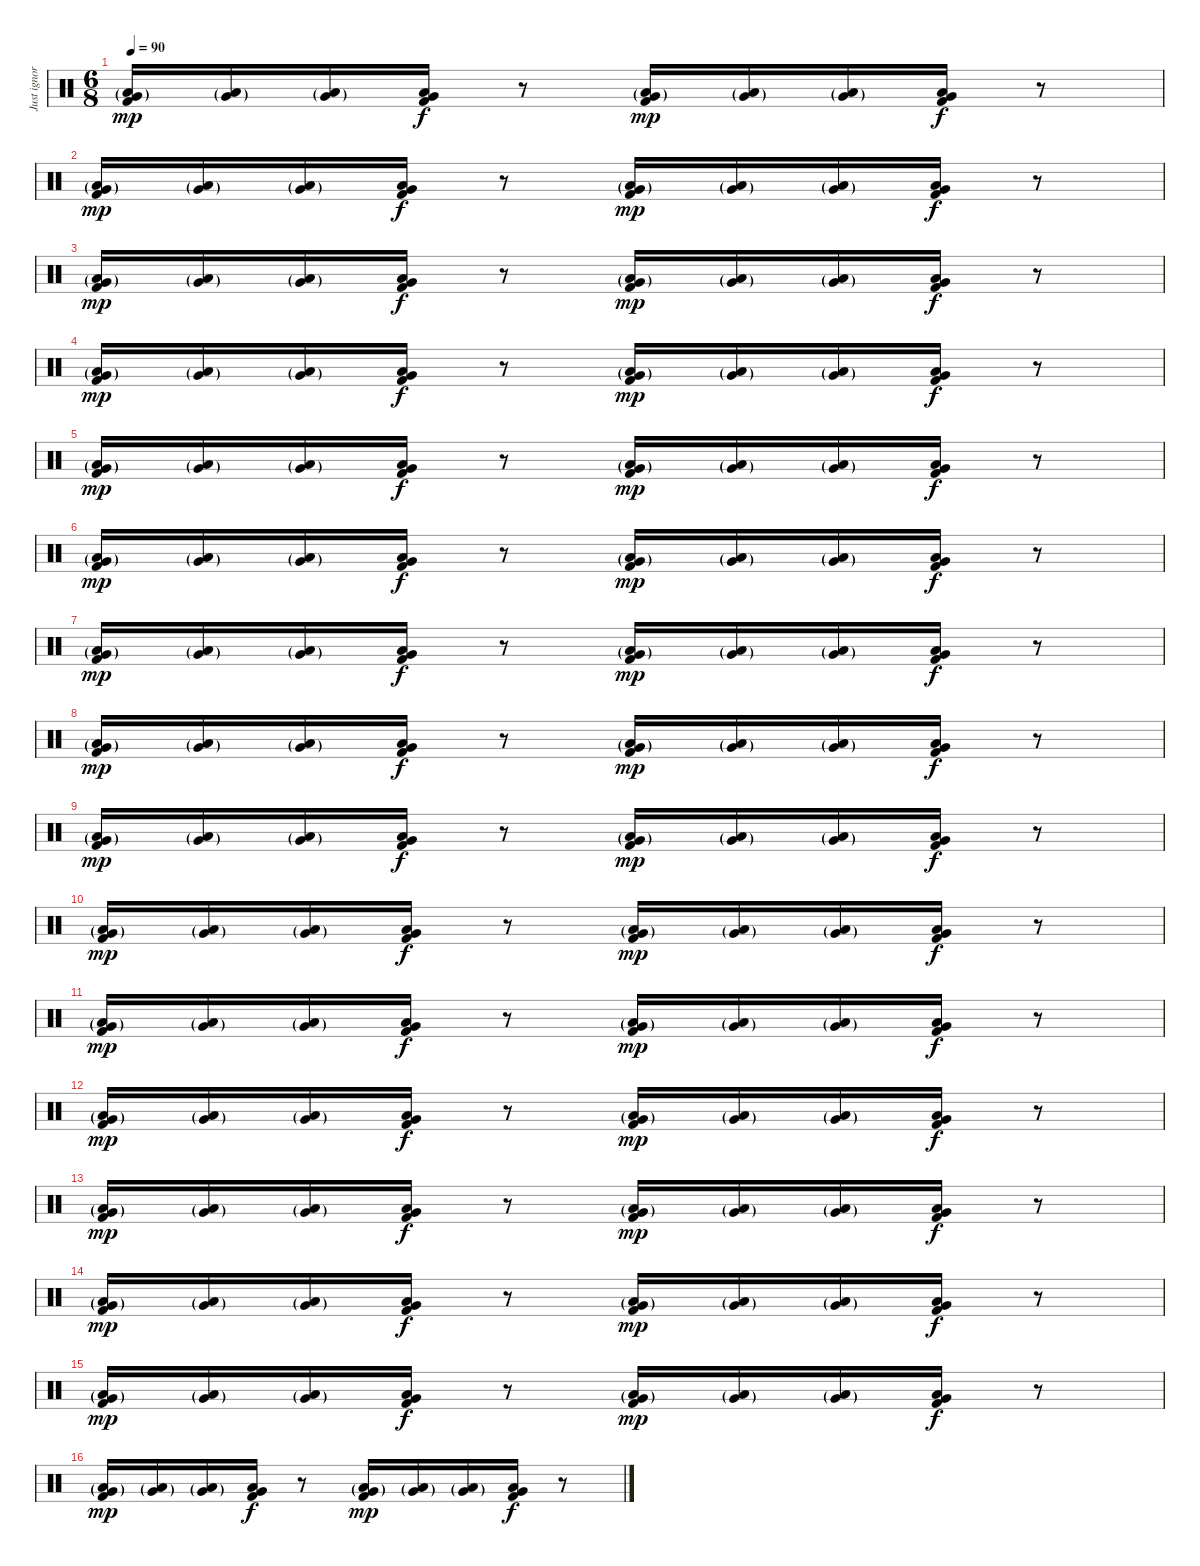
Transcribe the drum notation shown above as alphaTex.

\track ("Just ignore this track" "Just ignor") {instrument percussion}
\staff {score}
\articulation defaults
\ts (6 8)
\tempo 90
\clef neutral
\ks c
("Very Low Tom (hit)"{g} "Low Floor Tom (hit)"{g} "Kick (hit) 2").16{dy mp volume 7} ("Very Low Tom (hit)"{g} "Low Floor Tom (hit)"{g}).16{volume 10} ("Very Low Tom (hit)"{g} "Low Floor Tom (hit)"{g}).16 ("Very Low Tom (hit)" "Low Floor Tom (hit)" "Kick (hit) 2").16{dy f} r.8 ("Very Low Tom (hit)"{g} "Low Floor Tom (hit)"{g} "Kick (hit) 2").16{dy mp} ("Very Low Tom (hit)"{g} "Low Floor Tom (hit)"{g}).16 ("Very Low Tom (hit)"{g} "Low Floor Tom (hit)"{g}).16 ("Very Low Tom (hit)" "Low Floor Tom (hit)" "Kick (hit) 2").16{dy f} r.8 |
("Very Low Tom (hit)"{g} "Low Floor Tom (hit)"{g} "Kick (hit) 2").16{dy mp} ("Very Low Tom (hit)"{g} "Low Floor Tom (hit)"{g}).16 ("Very Low Tom (hit)"{g} "Low Floor Tom (hit)"{g}).16 ("Very Low Tom (hit)" "Low Floor Tom (hit)" "Kick (hit) 2").16{dy f} r.8 ("Very Low Tom (hit)"{g} "Low Floor Tom (hit)"{g} "Kick (hit) 2").16{dy mp} ("Very Low Tom (hit)"{g} "Low Floor Tom (hit)"{g}).16 ("Very Low Tom (hit)"{g} "Low Floor Tom (hit)"{g}).16 ("Very Low Tom (hit)" "Low Floor Tom (hit)" "Kick (hit) 2").16{dy f} r.8 |
("Very Low Tom (hit)"{g} "Low Floor Tom (hit)"{g} "Kick (hit) 2").16{dy mp} ("Very Low Tom (hit)"{g} "Low Floor Tom (hit)"{g}).16 ("Very Low Tom (hit)"{g} "Low Floor Tom (hit)"{g}).16 ("Very Low Tom (hit)" "Low Floor Tom (hit)" "Kick (hit) 2").16{dy f} r.8 ("Very Low Tom (hit)"{g} "Low Floor Tom (hit)"{g} "Kick (hit) 2").16{dy mp} ("Very Low Tom (hit)"{g} "Low Floor Tom (hit)"{g}).16 ("Very Low Tom (hit)"{g} "Low Floor Tom (hit)"{g}).16 ("Very Low Tom (hit)" "Low Floor Tom (hit)" "Kick (hit) 2").16{dy f} r.8 |
("Very Low Tom (hit)"{g} "Low Floor Tom (hit)"{g} "Kick (hit) 2").16{dy mp} ("Very Low Tom (hit)"{g} "Low Floor Tom (hit)"{g}).16 ("Very Low Tom (hit)"{g} "Low Floor Tom (hit)"{g}).16 ("Very Low Tom (hit)" "Low Floor Tom (hit)" "Kick (hit) 2").16{dy f} r.8 ("Very Low Tom (hit)"{g} "Low Floor Tom (hit)"{g} "Kick (hit) 2").16{dy mp} ("Very Low Tom (hit)"{g} "Low Floor Tom (hit)"{g}).16 ("Very Low Tom (hit)"{g} "Low Floor Tom (hit)"{g}).16 ("Very Low Tom (hit)" "Low Floor Tom (hit)" "Kick (hit) 2").16{dy f} r.8 |
("Very Low Tom (hit)"{g} "Low Floor Tom (hit)"{g} "Kick (hit) 2").16{dy mp volume 10} ("Very Low Tom (hit)"{g} "Low Floor Tom (hit)"{g}).16{volume 10} ("Very Low Tom (hit)"{g} "Low Floor Tom (hit)"{g}).16 ("Very Low Tom (hit)" "Low Floor Tom (hit)" "Kick (hit) 2").16{dy f} r.8 ("Very Low Tom (hit)"{g} "Low Floor Tom (hit)"{g} "Kick (hit) 2").16{dy mp} ("Very Low Tom (hit)"{g} "Low Floor Tom (hit)"{g}).16 ("Very Low Tom (hit)"{g} "Low Floor Tom (hit)"{g}).16 ("Very Low Tom (hit)" "Low Floor Tom (hit)" "Kick (hit) 2").16{dy f} r.8 |
("Very Low Tom (hit)"{g} "Low Floor Tom (hit)"{g} "Kick (hit) 2").16{dy mp} ("Very Low Tom (hit)"{g} "Low Floor Tom (hit)"{g}).16 ("Very Low Tom (hit)"{g} "Low Floor Tom (hit)"{g}).16 ("Very Low Tom (hit)" "Low Floor Tom (hit)" "Kick (hit) 2").16{dy f} r.8 ("Very Low Tom (hit)"{g} "Low Floor Tom (hit)"{g} "Kick (hit) 2").16{dy mp} ("Very Low Tom (hit)"{g} "Low Floor Tom (hit)"{g}).16 ("Very Low Tom (hit)"{g} "Low Floor Tom (hit)"{g}).16 ("Very Low Tom (hit)" "Low Floor Tom (hit)" "Kick (hit) 2").16{dy f} r.8 |
("Very Low Tom (hit)"{g} "Low Floor Tom (hit)"{g} "Kick (hit) 2").16{dy mp} ("Very Low Tom (hit)"{g} "Low Floor Tom (hit)"{g}).16 ("Very Low Tom (hit)"{g} "Low Floor Tom (hit)"{g}).16 ("Very Low Tom (hit)" "Low Floor Tom (hit)" "Kick (hit) 2").16{dy f} r.8 ("Very Low Tom (hit)"{g} "Low Floor Tom (hit)"{g} "Kick (hit) 2").16{dy mp} ("Very Low Tom (hit)"{g} "Low Floor Tom (hit)"{g}).16 ("Very Low Tom (hit)"{g} "Low Floor Tom (hit)"{g}).16 ("Very Low Tom (hit)" "Low Floor Tom (hit)" "Kick (hit) 2").16{dy f} r.8 |
("Very Low Tom (hit)"{g} "Low Floor Tom (hit)"{g} "Kick (hit) 2").16{dy mp} ("Very Low Tom (hit)"{g} "Low Floor Tom (hit)"{g}).16 ("Very Low Tom (hit)"{g} "Low Floor Tom (hit)"{g}).16 ("Very Low Tom (hit)" "Low Floor Tom (hit)" "Kick (hit) 2").16{dy f} r.8 ("Very Low Tom (hit)"{g} "Low Floor Tom (hit)"{g} "Kick (hit) 2").16{dy mp} ("Very Low Tom (hit)"{g} "Low Floor Tom (hit)"{g}).16 ("Very Low Tom (hit)"{g} "Low Floor Tom (hit)"{g}).16 ("Very Low Tom (hit)" "Low Floor Tom (hit)" "Kick (hit) 2").16{dy f} r.8 |
("Very Low Tom (hit)"{g} "Low Floor Tom (hit)"{g} "Kick (hit) 2").16{dy mp} ("Very Low Tom (hit)"{g} "Low Floor Tom (hit)"{g}).16 ("Very Low Tom (hit)"{g} "Low Floor Tom (hit)"{g}).16 ("Very Low Tom (hit)" "Low Floor Tom (hit)" "Kick (hit) 2").16{dy f} r.8 ("Very Low Tom (hit)"{g} "Low Floor Tom (hit)"{g} "Kick (hit) 2").16{dy mp} ("Very Low Tom (hit)"{g} "Low Floor Tom (hit)"{g}).16 ("Very Low Tom (hit)"{g} "Low Floor Tom (hit)"{g}).16 ("Very Low Tom (hit)" "Low Floor Tom (hit)" "Kick (hit) 2").16{dy f} r.8 |
("Very Low Tom (hit)"{g} "Low Floor Tom (hit)"{g} "Kick (hit) 2").16{dy mp} ("Very Low Tom (hit)"{g} "Low Floor Tom (hit)"{g}).16 ("Very Low Tom (hit)"{g} "Low Floor Tom (hit)"{g}).16 ("Very Low Tom (hit)" "Low Floor Tom (hit)" "Kick (hit) 2").16{dy f} r.8 ("Very Low Tom (hit)"{g} "Low Floor Tom (hit)"{g} "Kick (hit) 2").16{dy mp} ("Very Low Tom (hit)"{g} "Low Floor Tom (hit)"{g}).16 ("Very Low Tom (hit)"{g} "Low Floor Tom (hit)"{g}).16 ("Very Low Tom (hit)" "Low Floor Tom (hit)" "Kick (hit) 2").16{dy f} r.8 |
("Very Low Tom (hit)"{g} "Low Floor Tom (hit)"{g} "Kick (hit) 2").16{dy mp} ("Very Low Tom (hit)"{g} "Low Floor Tom (hit)"{g}).16 ("Very Low Tom (hit)"{g} "Low Floor Tom (hit)"{g}).16 ("Very Low Tom (hit)" "Low Floor Tom (hit)" "Kick (hit) 2").16{dy f} r.8 ("Very Low Tom (hit)"{g} "Low Floor Tom (hit)"{g} "Kick (hit) 2").16{dy mp} ("Very Low Tom (hit)"{g} "Low Floor Tom (hit)"{g}).16 ("Very Low Tom (hit)"{g} "Low Floor Tom (hit)"{g}).16 ("Very Low Tom (hit)" "Low Floor Tom (hit)" "Kick (hit) 2").16{dy f} r.8 |
("Very Low Tom (hit)"{g} "Low Floor Tom (hit)"{g} "Kick (hit) 2").16{dy mp} ("Very Low Tom (hit)"{g} "Low Floor Tom (hit)"{g}).16 ("Very Low Tom (hit)"{g} "Low Floor Tom (hit)"{g}).16 ("Very Low Tom (hit)" "Low Floor Tom (hit)" "Kick (hit) 2").16{dy f} r.8 ("Very Low Tom (hit)"{g} "Low Floor Tom (hit)"{g} "Kick (hit) 2").16{dy mp} ("Very Low Tom (hit)"{g} "Low Floor Tom (hit)"{g}).16 ("Very Low Tom (hit)"{g} "Low Floor Tom (hit)"{g}).16 ("Very Low Tom (hit)" "Low Floor Tom (hit)" "Kick (hit) 2").16{dy f} r.8 |
("Very Low Tom (hit)"{g} "Low Floor Tom (hit)"{g} "Kick (hit) 2").16{dy mp volume 10} ("Very Low Tom (hit)"{g} "Low Floor Tom (hit)"{g}).16{volume 12} ("Very Low Tom (hit)"{g} "Low Floor Tom (hit)"{g}).16 ("Very Low Tom (hit)" "Low Floor Tom (hit)" "Kick (hit) 2").16{dy f} r.8 ("Very Low Tom (hit)"{g} "Low Floor Tom (hit)"{g} "Kick (hit) 2").16{dy mp} ("Very Low Tom (hit)"{g} "Low Floor Tom (hit)"{g}).16 ("Very Low Tom (hit)"{g} "Low Floor Tom (hit)"{g}).16 ("Very Low Tom (hit)" "Low Floor Tom (hit)" "Kick (hit) 2").16{dy f} r.8 |
("Very Low Tom (hit)"{g} "Low Floor Tom (hit)"{g} "Kick (hit) 2").16{dy mp} ("Very Low Tom (hit)"{g} "Low Floor Tom (hit)"{g}).16 ("Very Low Tom (hit)"{g} "Low Floor Tom (hit)"{g}).16 ("Very Low Tom (hit)" "Low Floor Tom (hit)" "Kick (hit) 2").16{dy f} r.8 ("Very Low Tom (hit)"{g} "Low Floor Tom (hit)"{g} "Kick (hit) 2").16{dy mp} ("Very Low Tom (hit)"{g} "Low Floor Tom (hit)"{g}).16 ("Very Low Tom (hit)"{g} "Low Floor Tom (hit)"{g}).16 ("Very Low Tom (hit)" "Low Floor Tom (hit)" "Kick (hit) 2").16{dy f} r.8 |
("Very Low Tom (hit)"{g} "Low Floor Tom (hit)"{g} "Kick (hit) 2").16{dy mp} ("Very Low Tom (hit)"{g} "Low Floor Tom (hit)"{g}).16 ("Very Low Tom (hit)"{g} "Low Floor Tom (hit)"{g}).16 ("Very Low Tom (hit)" "Low Floor Tom (hit)" "Kick (hit) 2").16{dy f} r.8 ("Very Low Tom (hit)"{g} "Low Floor Tom (hit)"{g} "Kick (hit) 2").16{dy mp} ("Very Low Tom (hit)"{g} "Low Floor Tom (hit)"{g}).16 ("Very Low Tom (hit)"{g} "Low Floor Tom (hit)"{g}).16 ("Very Low Tom (hit)" "Low Floor Tom (hit)" "Kick (hit) 2").16{dy f} r.8 |
("Very Low Tom (hit)"{g} "Low Floor Tom (hit)"{g} "Kick (hit) 2").16{dy mp} ("Very Low Tom (hit)"{g} "Low Floor Tom (hit)"{g}).16 ("Very Low Tom (hit)"{g} "Low Floor Tom (hit)"{g}).16 ("Very Low Tom (hit)" "Low Floor Tom (hit)" "Kick (hit) 2").16{dy f} r.8 ("Very Low Tom (hit)"{g} "Low Floor Tom (hit)"{g} "Kick (hit) 2").16{dy mp} ("Very Low Tom (hit)"{g} "Low Floor Tom (hit)"{g}).16 ("Very Low Tom (hit)"{g} "Low Floor Tom (hit)"{g}).16 ("Very Low Tom (hit)" "Low Floor Tom (hit)" "Kick (hit) 2").16{dy f} r.8
